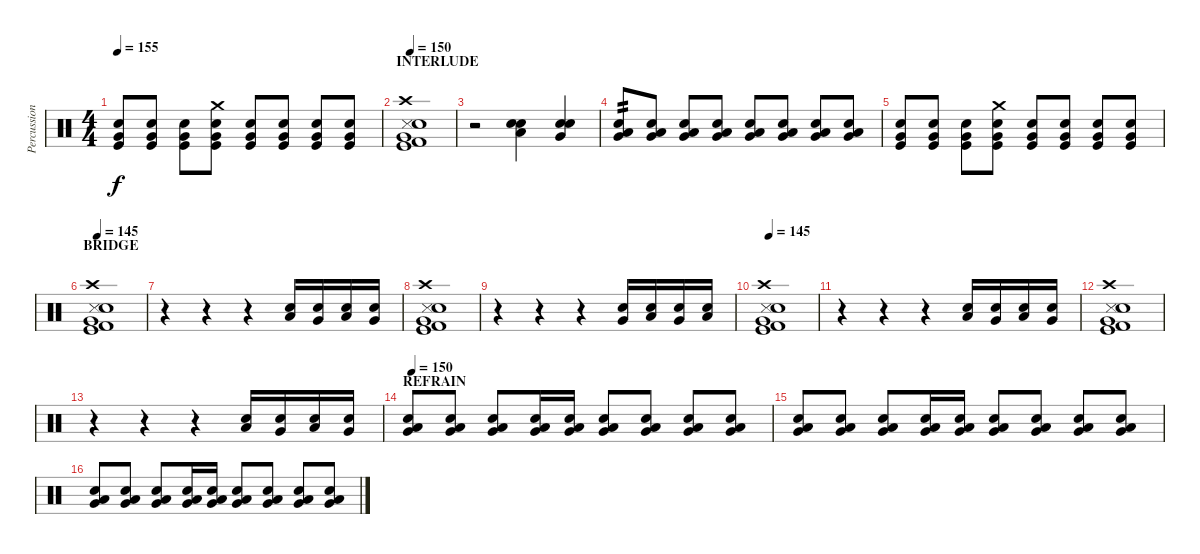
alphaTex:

\track ("Percussion-group" "Percussion") {instrument percussion}
\staff {score}
\articulation defaults
\ts (4 4)
\tempo 155
\clef neutral
\ks c
("Very Low Tom (hit)" "Kick (hit)" "Electric Snare (hit)").8{dy f} ("Very Low Tom (hit)" "Kick (hit)" "Electric Snare (hit)").8 ("Very Low Tom (hit)" "Kick (hit)" "Electric Snare (hit)").8 ("Very Low Tom (hit)" "Kick (hit)" "Electric Snare (hit)" "Crash medium (hit)").8 ("Very Low Tom (hit)" "Kick (hit)" "Electric Snare (hit)").8 ("Very Low Tom (hit)" "Kick (hit)" "Electric Snare (hit)").8 ("Very Low Tom (hit)" "Kick (hit)" "Electric Snare (hit)").8 ("Very Low Tom (hit)" "Kick (hit)" "Electric Snare (hit)").8 |
\section ("" "INTERLUDE")
\tempo 150
("Very Low Tom (hit)" "Crash high (hit)" "Kick (hit)" "Metronome (hit)" "Kick (hit) 2" "Electric Snare (hit)").1 |
r.2 ("Low Tom (hit)" "Electric Snare (hit)" "Snare (hit) 2").4 ("Very Low Tom (hit)" "Electric Snare (hit)" "Snare (hit) 2").4 |
("Low Tom (hit)" "Very Low Tom (hit)" "Electric Snare (hit)").8{tp 2} ("Low Tom (hit)" "Very Low Tom (hit)" "Electric Snare (hit)").8 ("Low Tom (hit)" "Very Low Tom (hit)" "Electric Snare (hit)").8 ("Low Tom (hit)" "Very Low Tom (hit)" "Electric Snare (hit)").8 ("Low Tom (hit)" "Very Low Tom (hit)" "Electric Snare (hit)").8 ("Low Tom (hit)" "Very Low Tom (hit)" "Electric Snare (hit)").8 ("Low Tom (hit)" "Very Low Tom (hit)" "Electric Snare (hit)").8 ("Low Tom (hit)" "Very Low Tom (hit)" "Electric Snare (hit)").8 |
("Very Low Tom (hit)" "Kick (hit)" "Electric Snare (hit)").8 ("Very Low Tom (hit)" "Kick (hit)" "Electric Snare (hit)").8 ("Very Low Tom (hit)" "Kick (hit)" "Electric Snare (hit)").8 ("Very Low Tom (hit)" "Kick (hit)" "Electric Snare (hit)" "Crash medium (hit)").8 ("Very Low Tom (hit)" "Kick (hit)" "Electric Snare (hit)").8 ("Very Low Tom (hit)" "Kick (hit)" "Electric Snare (hit)").8 ("Very Low Tom (hit)" "Kick (hit)" "Electric Snare (hit)").8 ("Very Low Tom (hit)" "Kick (hit)" "Electric Snare (hit)").8 |
\section ("" "BRIDGE")
\tempo 150
\tempo 145
("Very Low Tom (hit)" "Crash high (hit)" "Kick (hit)" "Metronome (hit)" "Kick (hit) 2" "Electric Snare (hit)").1 |
r.4 r.4 r.4 ("Low Tom (hit)" "Snare (hit) 2").16 ("Very Low Tom (hit)" "Electric Snare (hit)").16 ("Low Tom (hit)" "Snare (hit) 2").16 ("Very Low Tom (hit)" "Electric Snare (hit)").16 |
("Very Low Tom (hit)" "Crash high (hit)" "Kick (hit)" "Metronome (hit)" "Kick (hit) 2" "Electric Snare (hit)").1 |
r.4 r.4 r.4 ("Very Low Tom (hit)" "Electric Snare (hit)").16 ("Low Tom (hit)" "Snare (hit) 2").16 ("Very Low Tom (hit)" "Electric Snare (hit)").16 ("Low Tom (hit)" "Snare (hit) 2").16 |
\tempo 145
("Very Low Tom (hit)" "Crash high (hit)" "Kick (hit)" "Metronome (hit)" "Kick (hit) 2" "Electric Snare (hit)").1 |
r.4 r.4 r.4 ("Low Tom (hit)" "Snare (hit) 2").16 ("Very Low Tom (hit)" "Electric Snare (hit)").16 ("Low Tom (hit)" "Snare (hit) 2").16 ("Very Low Tom (hit)" "Electric Snare (hit)").16 |
("Very Low Tom (hit)" "Crash high (hit)" "Kick (hit)" "Metronome (hit)" "Kick (hit) 2" "Electric Snare (hit)").1 |
r.4 r.4 r.4 ("Low Tom (hit)" "Electric Snare (hit)").16 ("Very Low Tom (hit)" "Snare (hit) 2").16 ("Low Tom (hit)" "Electric Snare (hit)").16 ("Very Low Tom (hit)" "Snare (hit) 2").16 |
\section ("" "REFRAIN")
\tempo 150
("Low Tom (hit)" "Very Low Tom (hit)" "Electric Snare (hit)").8 ("Low Tom (hit)" "Very Low Tom (hit)" "Electric Snare (hit)").8 ("Low Tom (hit)" "Very Low Tom (hit)" "Electric Snare (hit)").8 ("Low Tom (hit)" "Very Low Tom (hit)" "Electric Snare (hit)").16 ("Low Tom (hit)" "Very Low Tom (hit)" "Electric Snare (hit)").16 ("Low Tom (hit)" "Very Low Tom (hit)" "Electric Snare (hit)").8 ("Low Tom (hit)" "Very Low Tom (hit)" "Electric Snare (hit)").8 ("Low Tom (hit)" "Very Low Tom (hit)" "Electric Snare (hit)").8 ("Low Tom (hit)" "Very Low Tom (hit)" "Electric Snare (hit)").8 |
("Low Tom (hit)" "Very Low Tom (hit)" "Electric Snare (hit)").8 ("Low Tom (hit)" "Very Low Tom (hit)" "Electric Snare (hit)").8 ("Low Tom (hit)" "Very Low Tom (hit)" "Electric Snare (hit)").8 ("Low Tom (hit)" "Very Low Tom (hit)" "Electric Snare (hit)").16 ("Low Tom (hit)" "Very Low Tom (hit)" "Electric Snare (hit)").16 ("Low Tom (hit)" "Very Low Tom (hit)" "Electric Snare (hit)").8 ("Low Tom (hit)" "Very Low Tom (hit)" "Electric Snare (hit)").8 ("Low Tom (hit)" "Very Low Tom (hit)" "Electric Snare (hit)").8 ("Low Tom (hit)" "Very Low Tom (hit)" "Electric Snare (hit)").8 |
("Low Tom (hit)" "Very Low Tom (hit)" "Electric Snare (hit)").8 ("Low Tom (hit)" "Very Low Tom (hit)" "Electric Snare (hit)").8 ("Low Tom (hit)" "Very Low Tom (hit)" "Electric Snare (hit)").8 ("Low Tom (hit)" "Very Low Tom (hit)" "Electric Snare (hit)").16 ("Low Tom (hit)" "Very Low Tom (hit)" "Electric Snare (hit)").16 ("Low Tom (hit)" "Very Low Tom (hit)" "Electric Snare (hit)").8 ("Low Tom (hit)" "Very Low Tom (hit)" "Electric Snare (hit)").8 ("Low Tom (hit)" "Very Low Tom (hit)" "Electric Snare (hit)").8 ("Low Tom (hit)" "Very Low Tom (hit)" "Electric Snare (hit)").8
